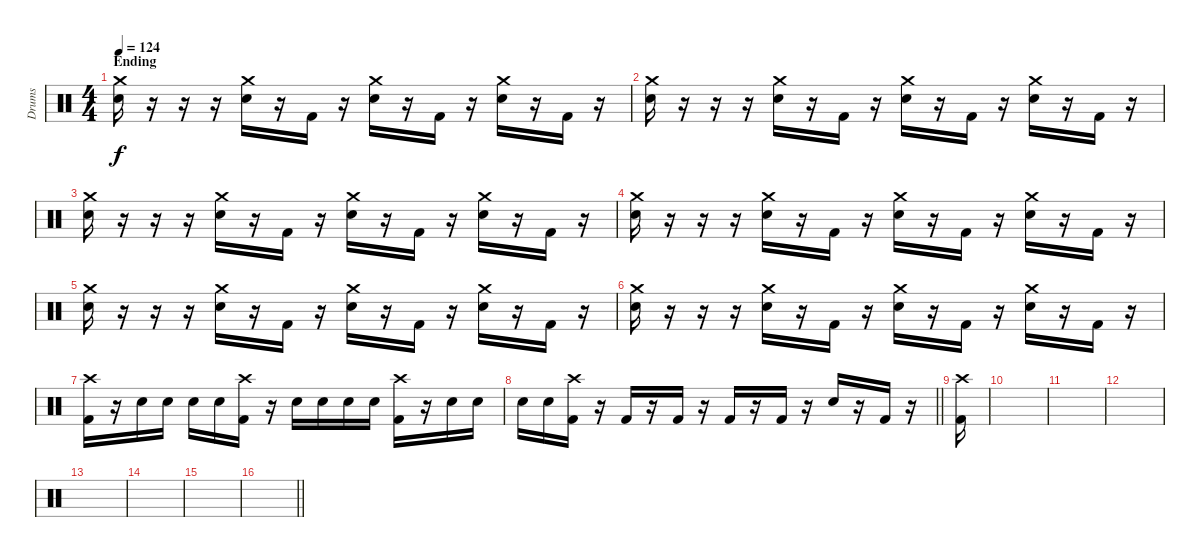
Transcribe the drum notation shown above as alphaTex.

\track ("Drums" "Drums") {instrument percussion}
\staff {score}
\articulation defaults
\ts (4 4)
\section ("" "Ending")
\tempo 124
\clef neutral
\ks c
("Crash medium (hit)" "Snare (hit) 2").16{dy f} r.16 r.16 r.16 ("Crash medium (hit)" "Snare (hit) 2").16 r.16 "Kick (hit) 2".16 r.16 ("Crash medium (hit)" "Snare (hit) 2").16 r.16 "Kick (hit) 2".16 r.16 ("Crash medium (hit)" "Snare (hit) 2").16 r.16 "Kick (hit) 2".16 r.16 |
("Crash medium (hit)" "Snare (hit) 2").16 r.16 r.16 r.16 ("Crash medium (hit)" "Snare (hit) 2").16 r.16 "Kick (hit) 2".16 r.16 ("Crash medium (hit)" "Snare (hit) 2").16 r.16 "Kick (hit) 2".16 r.16 ("Crash medium (hit)" "Snare (hit) 2").16 r.16 "Kick (hit) 2".16 r.16 |
("Crash medium (hit)" "Snare (hit) 2").16 r.16 r.16 r.16 ("Crash medium (hit)" "Snare (hit) 2").16 r.16 "Kick (hit) 2".16 r.16 ("Crash medium (hit)" "Snare (hit) 2").16 r.16 "Kick (hit) 2".16 r.16 ("Crash medium (hit)" "Snare (hit) 2").16 r.16 "Kick (hit) 2".16 r.16 |
("Crash medium (hit)" "Snare (hit) 2").16 r.16 r.16 r.16 ("Crash medium (hit)" "Snare (hit) 2").16 r.16 "Kick (hit) 2".16 r.16 ("Crash medium (hit)" "Snare (hit) 2").16 r.16 "Kick (hit) 2".16 r.16 ("Crash medium (hit)" "Snare (hit) 2").16 r.16 "Kick (hit) 2".16 r.16 |
("Crash medium (hit)" "Snare (hit) 2").16 r.16 r.16 r.16 ("Crash medium (hit)" "Snare (hit) 2").16 r.16 "Kick (hit) 2".16 r.16 ("Crash medium (hit)" "Snare (hit) 2").16 r.16 "Kick (hit) 2".16 r.16 ("Crash medium (hit)" "Snare (hit) 2").16 r.16 "Kick (hit) 2".16 r.16 |
("Crash medium (hit)" "Snare (hit) 2").16 r.16 r.16 r.16 ("Crash medium (hit)" "Snare (hit) 2").16 r.16 "Kick (hit) 2".16 r.16 ("Crash medium (hit)" "Snare (hit) 2").16 r.16 "Kick (hit) 2".16 r.16 ("Crash medium (hit)" "Snare (hit) 2").16 r.16 "Kick (hit) 2".16 r.16 |
("Crash high (hit)" "Kick (hit) 2").16 r.16 "Snare (hit) 2".16 "Snare (hit) 2".16 "Snare (hit) 2".16 "Snare (hit) 2".16 ("Crash high (hit)" "Kick (hit) 2").16 r.16 "Snare (hit) 2".16 "Snare (hit) 2".16 "Snare (hit) 2".16 "Snare (hit) 2".16 ("Crash high (hit)" "Kick (hit) 2").16 r.16 "Snare (hit) 2".16 "Snare (hit) 2".16 |
\barLineRight lightlight "Snare (hit) 2".16 "Snare (hit) 2".16
("Crash high (hit)" "Kick (hit) 2").16 r.16 "Kick (hit) 2".16 r.16 "Kick (hit) 2".16 r.16 "Kick (hit) 2".16 r.16 "Kick (hit) 2".16 r.16 "Snare (hit) 2".16 r.16 "Kick (hit) 2".16 r.16 |
("Crash high (hit)" "Kick (hit) 2").16 |
|
|
|
|
|
|
\barLineRight lightlight
